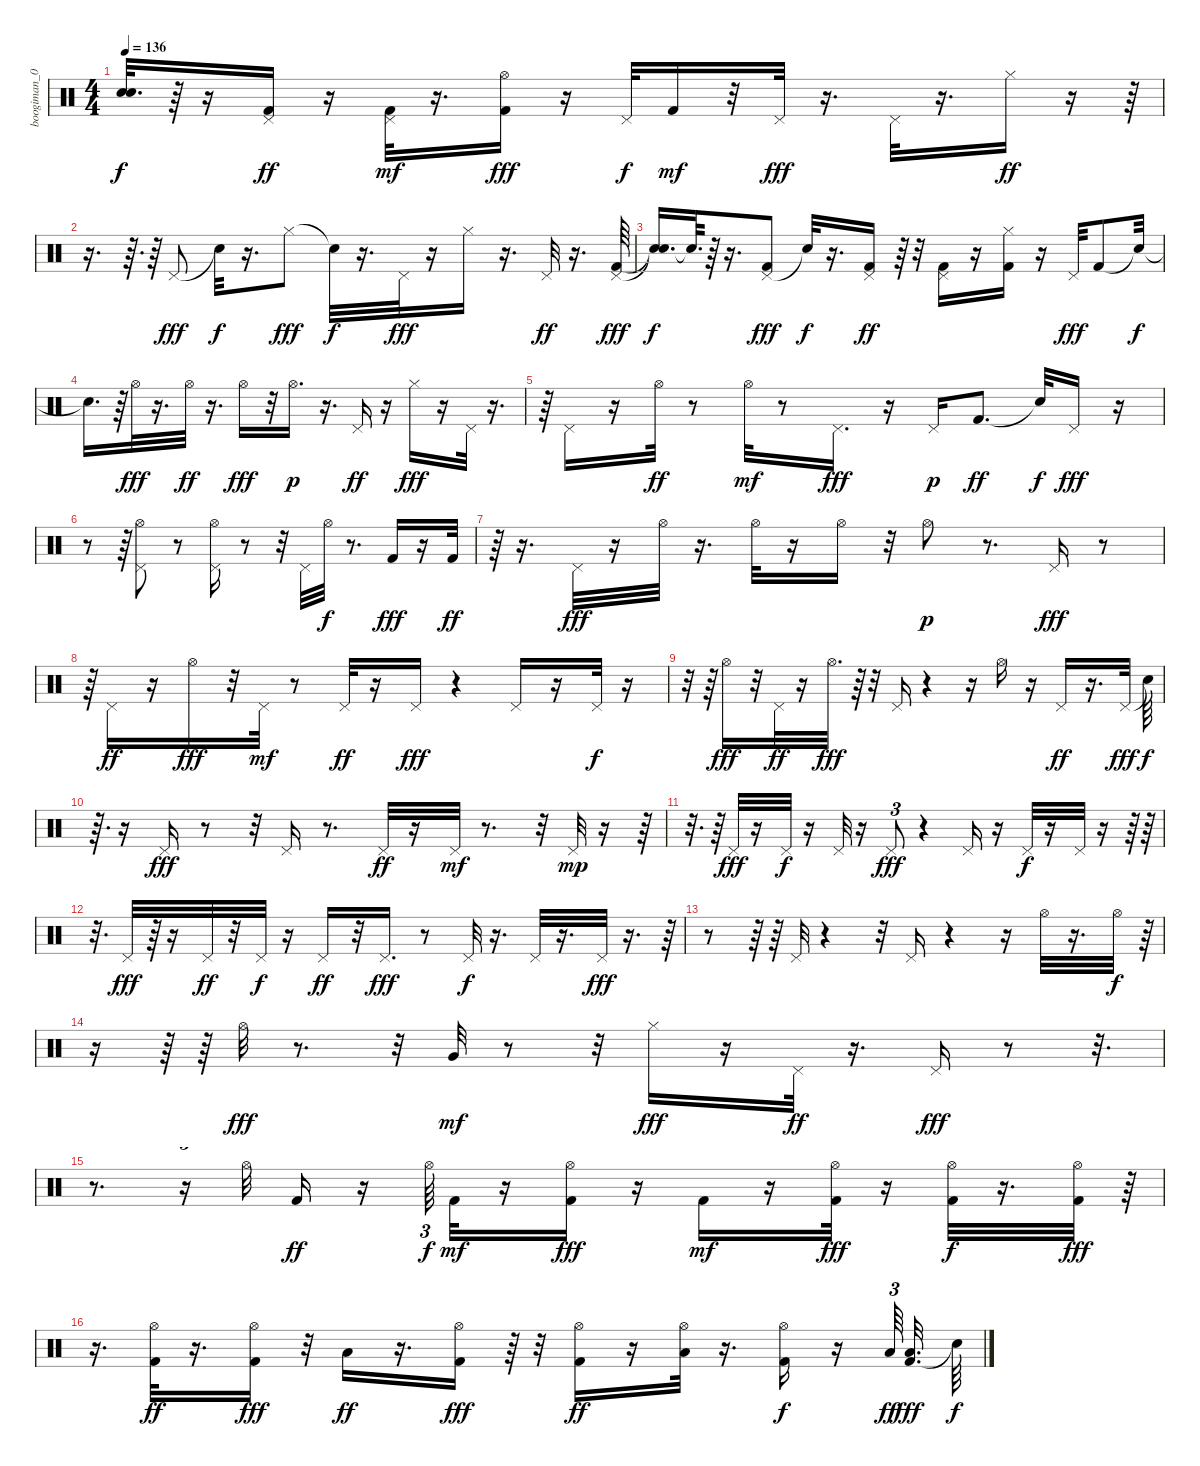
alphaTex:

\track ("boogiman_007@yahoo.com" "boogiman_0") {instrument percussion}
\staff {score}
\articulation defaults
\ts (4 4)
\tempo 136
\clef neutral
\ks c
("Snare (hit)"{t} "Snare (hit)"{t}).32{d dy f} r.64 r.16 ("Pedal Hi-Hat (hit)" "Kick (hit) 2").16{dy ff} r.16 ("Kick (hit) 2" "Pedal Hi-Hat (hit)").32{dy mf} r.16{d} ("Hi-Hat (open)" "Kick (hit) 2").16{dy fff} r.16 "Pedal Hi-Hat (hit)".32{dy f} "Kick (hit) 2".16{dy mf} r.32 "Pedal Hi-Hat (hit)".32{dy fff} r.16{d} "Pedal Hi-Hat (hit)".32 r.16{d} "Hi-Hat (closed)".16{dy ff} r.16 r.64 |
r.16{d} r.64{d} r.64 "Pedal Hi-Hat (hit)".8{dy fff} "Snare (hit)"{t}.32{dy f} r.16{d} "Hi-Hat (closed)".8{dy fff} "Snare (hit)"{t}.32{dy f} r.16{d} "Pedal Hi-Hat (hit)".32{dy fff} r.16 "Hi-Hat (closed)".16 r.16{d} "Pedal Hi-Hat (hit)".32{dy ff} r.16{d} ("Kick (hit) 2" "Pedal Hi-Hat (hit)").64{dy fff} |
("Snare (hit)"{t} "Snare (hit)"{t}).16{d dy f} "Snare (hit)"{t}.64{d} r.64 r.16{d} ("Pedal Hi-Hat (hit)" "Kick (hit) 2").8{dy fff} "Snare (hit)"{t}.32{dy f} r.16{d} ("Pedal Hi-Hat (hit)" "Kick (hit) 2").16{dy ff} r.64 r.32 ("Pedal Hi-Hat (hit)" "Kick (hit) 2").16 r.16 ("Hi-Hat (closed)" "Kick (hit) 2").16 r.16 "Pedal Hi-Hat (hit)".32{dy fff} "Kick (hit) 2".8 "Snare (hit)"{t}.32{dy f} |
"Snare (hit)"{t}.16{d} r.64 "Hi-Hat (open)".32{dy fff} r.16{d} "Hi-Hat (open)".32{dy ff} r.16{d} "Hi-Hat (open)".16{dy fff} r.32 "Hi-Hat (open)".16{d dy p} r.16{d} "Pedal Hi-Hat (hit)".16{dy ff} r.16 "Hi-Hat (closed)".16{dy fff} r.16 "Pedal Hi-Hat (hit)".32 r.16{d} |
r.64 "Pedal Hi-Hat (hit)".16 r.16 "Hi-Hat (open)".32{dy ff} r.8 "Hi-Hat (open)".32{dy mf} r.8 "Pedal Hi-Hat (hit)".16{d dy fff} r.16 "Pedal Hi-Hat (hit)".16{dy p} "Kick (hit) 2".8{d dy ff} "Snare (hit)"{t}.32{dy f} "Pedal Hi-Hat (hit)".16{dy fff} r.16 |
r.8 r.64 ("Pedal Hi-Hat (hit)" "Hi-Hat (open)").8 r.8 ("Pedal Hi-Hat (hit)" "Hi-Hat (open)").16 r.8 r.32 "Pedal Hi-Hat (hit)".32 "Hi-Hat (open)".32{dy f} r.8{d} "Kick (hit) 2".16{dy fff} r.16 "Kick (hit) 2".32{dy ff} |
r.64 r.16{d} "Pedal Hi-Hat (hit)".32{dy fff} r.16 "Hi-Hat (open)".32 r.16{d} "Hi-Hat (open)".32 r.16 "Hi-Hat (open)".16 r.32 "Hi-Hat (open)".8{dy p} r.8{d} "Pedal Hi-Hat (hit)".16{dy fff} r.8 |
r.64 "Pedal Hi-Hat (hit)".16{dy ff} r.16 "Hi-Hat (open)".16{dy fff} r.32 "Pedal Hi-Hat (hit)".32{dy mf} r.8 "Pedal Hi-Hat (hit)".32{dy ff} r.16 "Pedal Hi-Hat (hit)".16{dy fff} r.4 "Pedal Hi-Hat (hit)".16 r.16 "Pedal Hi-Hat (hit)".32{dy f} r.16 |
r.32 r.64 "Hi-Hat (open)".16{dy fff} r.32 "Pedal Hi-Hat (hit)".32{dy ff} r.16 "Hi-Hat (open)".32{d dy fff} r.64 r.32 "Pedal Hi-Hat (hit)".16 r.4 r.16 "Hi-Hat (open)".16 r.16 "Pedal Hi-Hat (hit)".16{dy ff} r.16{d} "Pedal Hi-Hat (hit)".32{dy fff} "Snare (hit)"{t}.64{dy f} |
r.64{d} r.16 "Pedal Hi-Hat (hit)".16{dy fff} r.8 r.32 "Pedal Hi-Hat (hit)".16 r.8{d} "Pedal Hi-Hat (hit)".32{dy ff} r.16 "Pedal Hi-Hat (hit)".32{dy mf} r.8{d} r.32 "Pedal Hi-Hat (hit)".32{dy mp} r.16 r.64 |
r.32{d} r.64 "Pedal Hi-Hat (hit)".32{dy fff} r.16 "Pedal Hi-Hat (hit)".32{dy f} r.16 "Pedal Hi-Hat (hit)".32 r.16 "Pedal Hi-Hat (hit)".8{tu (3 2) dy fff} r.4 "Pedal Hi-Hat (hit)".16 r.16 "Pedal Hi-Hat (hit)".32{dy f} r.16 "Pedal Hi-Hat (hit)".32 r.16 r.64 r.64 |
r.32{d} "Pedal Hi-Hat (hit)".32{dy fff} r.64 r.16 "Pedal Hi-Hat (hit)".32{dy ff} r.32 "Pedal Hi-Hat (hit)".32{dy f} r.16 "Pedal Hi-Hat (hit)".16{dy ff} r.32 "Pedal Hi-Hat (hit)".16{d dy fff} r.8 "Pedal Hi-Hat (hit)".32{dy f} r.16{d} "Pedal Hi-Hat (hit)".32 r.16{d} "Pedal Hi-Hat (hit)".32{dy fff} r.16{d} r.64{tu (5 4)} |
r.8 r.64 r.64 "Pedal Hi-Hat (hit)".32 r.4 r.32 "Pedal Hi-Hat (hit)".16 r.4 r.16 "Hi-Hat (open)".32 r.16{d} "Hi-Hat (open)".32{dy f} r.64{tu (5 4)} |
r.16 r.64 r.64 "Hi-Hat (open)".32{dy fff} r.8{d} r.32 "Very Low Tom (hit)".32{dy mf} r.8 r.32 "Hi-Hat (closed)".16{dy fff} r.16 "Pedal Hi-Hat (hit)".32{dy ff} r.16{d} "Pedal Hi-Hat (hit)".16{dy fff} r.8 r.32{d} |
r.8{d} r.16{tu (5 4)} "Hi-Hat (open)".32 "Kick (hit) 2".16{dy ff} r.16 "Hi-Hat (open)".64{tu (3 2) dy f} "Kick (hit) 2".32{dy mf} r.16 ("Kick (hit) 2" "Hi-Hat (open)").16{dy fff} r.16 "Kick (hit) 2".16{dy mf} r.16 ("Hi-Hat (open)" "Kick (hit) 2").32{dy fff} r.16 ("Hi-Hat (open)" "Kick (hit) 2").32{dy f} r.16{d} ("Hi-Hat (open)" "Kick (hit) 2").32{dy fff} r.64 |
r.16{d} ("Hi-Hat (open)" "Kick (hit) 2").32{dy ff} r.16{d} ("Hi-Hat (open)" "Kick (hit) 2").16{dy fff} r.32 "Low Tom (hit)".16{dy ff} r.16{d} ("Hi-Hat (open)" "Kick (hit) 2").16{dy fff} r.64 r.32 ("Kick (hit) 2" "Hi-Hat (open)").16{dy ff} r.16 ("Low Tom (hit)" "Hi-Hat (open)").32 r.16{d} ("Hi-Hat (open)" "Kick (hit) 2").16{dy f} r.16 "Low Tom (hit)".64{tu (3 2) dy ff} ("Kick (hit) 2" "Low Floor Tom (hit)").32{d dy fff} "Snare (hit)"{t}.64{dy f}
